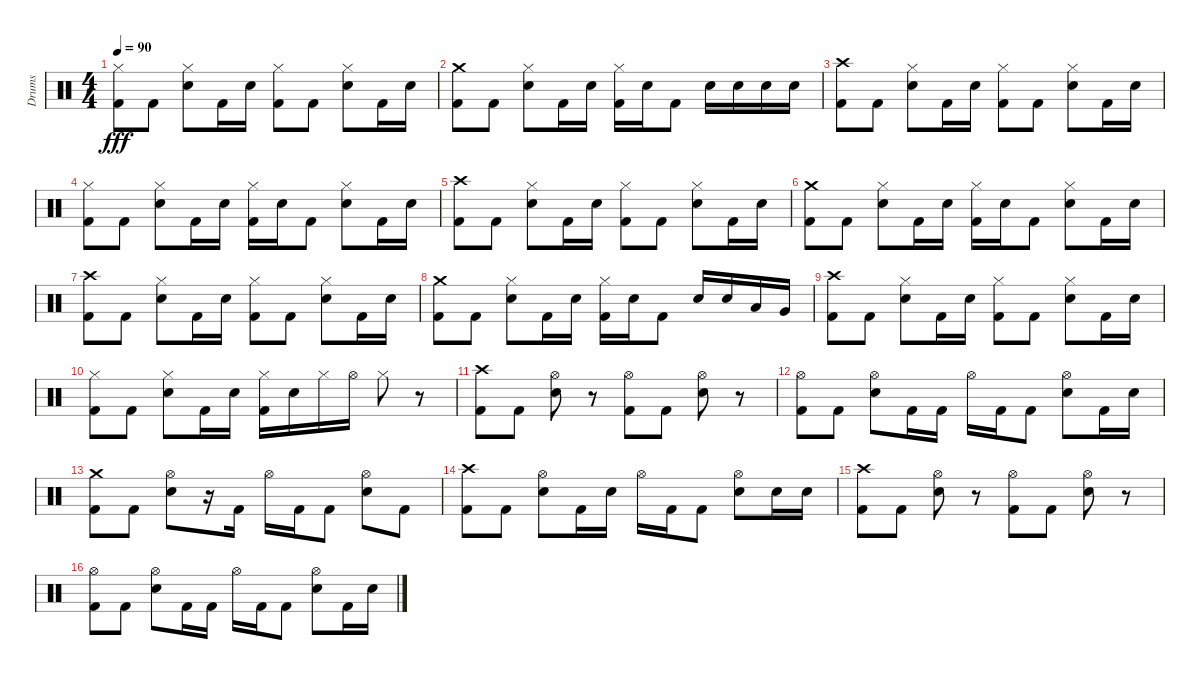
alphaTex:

\track ("Drums" "Drums") {instrument percussion}
\staff {score}
\articulation defaults
\ts (4 4)
\tempo 90
\clef neutral
\ks c
("Hi-Hat (closed)" "Kick (hit) 2").8{dy fff} "Kick (hit) 2".8 ("Hi-Hat (closed)" "Snare (hit) 2").8 "Kick (hit) 2".16 "Snare (hit) 2".16 ("Hi-Hat (closed)" "Kick (hit) 2").8 "Kick (hit) 2".8 ("Hi-Hat (closed)" "Snare (hit) 2").8 "Kick (hit) 2".16 "Snare (hit) 2".16 |
("Crash medium (hit)" "Kick (hit) 2").8 "Kick (hit) 2".8 ("Hi-Hat (closed)" "Snare (hit) 2").8 "Kick (hit) 2".16 "Snare (hit) 2".16 ("Hi-Hat (closed)" "Kick (hit) 2").16 "Snare (hit) 2".16 "Kick (hit) 2".8 "Snare (hit) 2".16 "Snare (hit) 2".16 "Snare (hit) 2".16 "Snare (hit) 2".16 |
("Crash high (hit)" "Kick (hit) 2").8 "Kick (hit) 2".8 ("Hi-Hat (closed)" "Snare (hit) 2").8 "Kick (hit) 2".16 "Snare (hit) 2".16 ("Hi-Hat (closed)" "Kick (hit) 2").8 "Kick (hit) 2".8 ("Hi-Hat (closed)" "Snare (hit) 2").8 "Kick (hit) 2".16 "Snare (hit) 2".16 |
("Hi-Hat (closed)" "Kick (hit) 2").8 "Kick (hit) 2".8 ("Hi-Hat (closed)" "Snare (hit) 2").8 "Kick (hit) 2".16 "Snare (hit) 2".16 ("Hi-Hat (closed)" "Kick (hit) 2").16 "Snare (hit) 2".16 "Kick (hit) 2".8 ("Hi-Hat (closed)" "Snare (hit) 2").8 "Kick (hit) 2".16 "Snare (hit) 2".16 |
("Crash high (hit)" "Kick (hit) 2").8 "Kick (hit) 2".8 ("Hi-Hat (closed)" "Snare (hit) 2").8 "Kick (hit) 2".16 "Snare (hit) 2".16 ("Hi-Hat (closed)" "Kick (hit) 2").8 "Kick (hit) 2".8 ("Hi-Hat (closed)" "Snare (hit) 2").8 "Kick (hit) 2".16 "Snare (hit) 2".16 |
("Crash medium (hit)" "Kick (hit) 2").8 "Kick (hit) 2".8 ("Hi-Hat (closed)" "Snare (hit) 2").8 "Kick (hit) 2".16 "Snare (hit) 2".16 ("Hi-Hat (closed)" "Kick (hit) 2").16 "Snare (hit) 2".16 "Kick (hit) 2".8 ("Hi-Hat (closed)" "Snare (hit) 2").8 "Kick (hit) 2".16 "Snare (hit) 2".16 |
("Crash high (hit)" "Kick (hit) 2").8 "Kick (hit) 2".8 ("Hi-Hat (closed)" "Snare (hit) 2").8 "Kick (hit) 2".16 "Snare (hit) 2".16 ("Hi-Hat (closed)" "Kick (hit) 2").8 "Kick (hit) 2".8 ("Hi-Hat (closed)" "Snare (hit) 2").8 "Kick (hit) 2".16 "Snare (hit) 2".16 |
("Crash medium (hit)" "Kick (hit) 2").8 "Kick (hit) 2".8 ("Hi-Hat (closed)" "Snare (hit) 2").8 "Kick (hit) 2".16 "Snare (hit) 2".16 ("Hi-Hat (closed)" "Kick (hit) 2").16 "Snare (hit) 2".16 "Kick (hit) 2".8 "Snare (hit) 2".16 "Snare (hit) 2".16 "Low Tom (hit)".16 "Very Low Tom (hit)".16 |
("Crash high (hit)" "Kick (hit) 2").8 "Kick (hit) 2".8 ("Hi-Hat (closed)" "Snare (hit) 2").8 "Kick (hit) 2".16 "Snare (hit) 2".16 ("Hi-Hat (closed)" "Kick (hit) 2").8 "Kick (hit) 2".8 ("Hi-Hat (closed)" "Snare (hit) 2").8 "Kick (hit) 2".16 "Snare (hit) 2".16 |
("Hi-Hat (closed)" "Kick (hit) 2").8 "Kick (hit) 2".8 ("Hi-Hat (closed)" "Snare (hit) 2").8 "Kick (hit) 2".16 "Snare (hit) 2".16 ("Hi-Hat (closed)" "Kick (hit) 2").16 "Snare (hit) 2".16 "Hi-Hat (closed)".16 "Hi-Hat (open)".16 "Hi-Hat (closed)".8 r.8 |
("Crash high (hit)" "Kick (hit) 2").8 "Kick (hit) 2".8 ("Hi-Hat (open)" "Snare (hit) 2").8 r.8 ("Hi-Hat (open)" "Kick (hit) 2").8 "Kick (hit) 2".8 ("Hi-Hat (open)" "Snare (hit) 2").8 r.8 |
("Hi-Hat (open)" "Kick (hit) 2").8 "Kick (hit) 2".8 ("Hi-Hat (open)" "Snare (hit) 2").8 "Kick (hit) 2".16 "Kick (hit) 2".16 "Hi-Hat (open)".16 "Kick (hit) 2".16 "Kick (hit) 2".8 ("Hi-Hat (open)" "Snare (hit) 2").8 "Kick (hit) 2".16 "Snare (hit) 2".16 |
("Crash medium (hit)" "Kick (hit) 2").8 "Kick (hit) 2".8 ("Hi-Hat (open)" "Snare (hit) 2").8 r.16 "Kick (hit) 2".16 "Hi-Hat (open)".16 "Kick (hit) 2".16 "Kick (hit) 2".8 ("Hi-Hat (open)" "Snare (hit) 2").8 "Kick (hit) 2".8 |
("Crash high (hit)" "Kick (hit) 2").8 "Kick (hit) 2".8 ("Hi-Hat (open)" "Snare (hit) 2").8 "Kick (hit) 2".16 "Snare (hit) 2".16 "Hi-Hat (open)".16 "Kick (hit) 2".16 "Kick (hit) 2".8 ("Hi-Hat (open)" "Snare (hit) 2").8 "Snare (hit) 2".16 "Snare (hit) 2".16 |
("Crash high (hit)" "Kick (hit) 2").8 "Kick (hit) 2".8 ("Hi-Hat (open)" "Snare (hit) 2").8 r.8 ("Hi-Hat (open)" "Kick (hit) 2").8 "Kick (hit) 2".8 ("Hi-Hat (open)" "Snare (hit) 2").8 r.8 |
("Hi-Hat (open)" "Kick (hit) 2").8 "Kick (hit) 2".8 ("Hi-Hat (open)" "Snare (hit) 2").8 "Kick (hit) 2".16 "Kick (hit) 2".16 "Hi-Hat (open)".16 "Kick (hit) 2".16 "Kick (hit) 2".8 ("Hi-Hat (open)" "Snare (hit) 2").8 "Kick (hit) 2".16 "Snare (hit) 2".16
